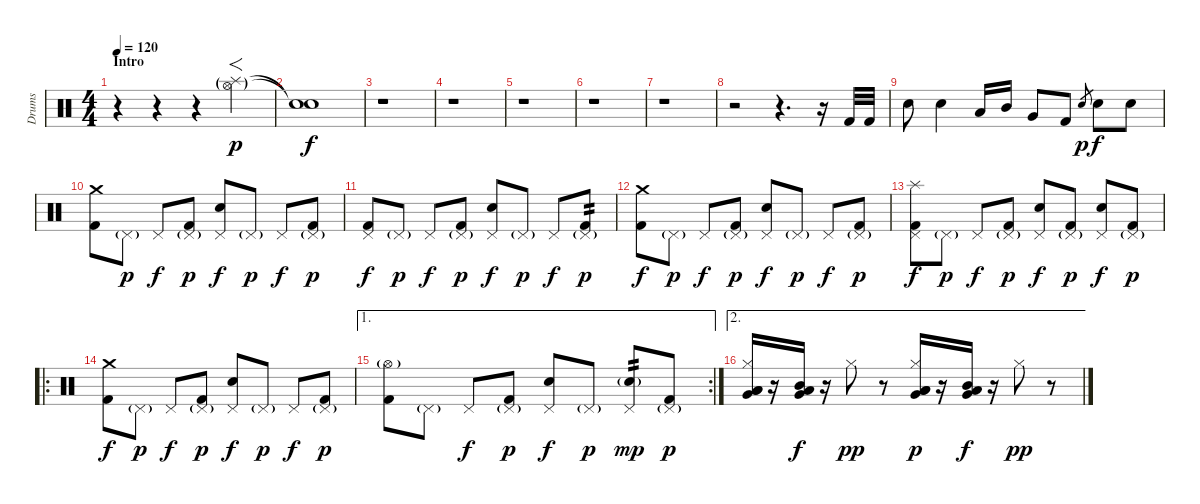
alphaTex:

\track ("Drums" "Drums") {instrument percussion}
\staff {score}
\articulation defaults
\ts (4 4)
\section ("" "Intro")
\tempo 120
\clef neutral
\ks c
r.4{dy p} r.4 r.4 ("Splash (hit)"{g} "Hi-Hat (open)"{g}).4{f} |
("Snare (hit)"{t} "Snare (hit)"{t}).1{dy f} |
r.1 |
r.1 |
r.1 |
r.1 |
r.1 |
r.2 r.4{d} r.16 "Kick (hit) 2".32 "Kick (hit) 2".32 |
"Electric Snare (hit)".8 "Electric Snare (hit)".4 "Low Tom (hit)".16 "Mid Tom (hit)".16 "Very Low Tom (hit)".8 "Kick (hit) 2".8 "Electric Snare (hit)".8{gr dy p} "Electric Snare (hit)".8{dy f} "Electric Snare (hit)".8 |
("Crash medium (hit)" "Kick (hit) 2").8 "Pedal Hi-Hat (hit)"{g}.8{dy p} "Pedal Hi-Hat (hit)".8{dy f} ("Pedal Hi-Hat (hit)"{g} "Kick (hit) 2").8{dy p} ("Pedal Hi-Hat (hit)" "Electric Snare (hit)").8{dy f} "Pedal Hi-Hat (hit)"{g}.8{dy p} "Pedal Hi-Hat (hit)".8{dy f} ("Pedal Hi-Hat (hit)"{g} "Kick (hit) 2").8{dy p} |
("Pedal Hi-Hat (hit)" "Kick (hit) 2").8{dy f} "Pedal Hi-Hat (hit)"{g}.8{dy p} "Pedal Hi-Hat (hit)".8{dy f} ("Pedal Hi-Hat (hit)"{g} "Kick (hit) 2").8{dy p} ("Pedal Hi-Hat (hit)" "Electric Snare (hit)").8{dy f} "Pedal Hi-Hat (hit)"{g}.8{dy p} "Pedal Hi-Hat (hit)".8{dy f} ("Pedal Hi-Hat (hit)"{g} "Kick (hit) 2").8{tp 2 dy p} |
("Crash medium (hit)" "Kick (hit) 2").8{dy f} "Pedal Hi-Hat (hit)"{g}.8{dy p} "Pedal Hi-Hat (hit)".8{dy f} ("Pedal Hi-Hat (hit)"{g} "Kick (hit) 2").8{dy p} ("Pedal Hi-Hat (hit)" "Electric Snare (hit)").8{dy f} "Pedal Hi-Hat (hit)"{g}.8{dy p} "Pedal Hi-Hat (hit)".8{dy f} ("Pedal Hi-Hat (hit)"{g} "Kick (hit) 2").8{dy p} |
("Splash (hit)" "Pedal Hi-Hat (hit)" "Kick (hit) 2").8{dy f} "Pedal Hi-Hat (hit)"{g}.8{dy p} "Pedal Hi-Hat (hit)".8{dy f} ("Pedal Hi-Hat (hit)"{g} "Kick (hit) 2").8{dy p} ("Pedal Hi-Hat (hit)" "Electric Snare (hit)").8{dy f} ("Pedal Hi-Hat (hit)"{g} "Kick (hit) 2").8{dy p} ("Pedal Hi-Hat (hit)" "Electric Snare (hit)").8{dy f} ("Pedal Hi-Hat (hit)"{g} "Kick (hit) 2").8{dy p} |
\ro
("Crash medium (hit)" "Kick (hit) 2").8{dy f} "Pedal Hi-Hat (hit)"{g}.8{dy p} "Pedal Hi-Hat (hit)".8{dy f} ("Pedal Hi-Hat (hit)"{g} "Kick (hit) 2").8{dy p} ("Pedal Hi-Hat (hit)" "Electric Snare (hit)").8{dy f} "Pedal Hi-Hat (hit)"{g}.8{dy p} "Pedal Hi-Hat (hit)".8{dy f} ("Pedal Hi-Hat (hit)"{g} "Kick (hit) 2").8{dy p} |
\ae 1
\rc 2
("Hi-Hat (open)"{g} "Kick (hit) 2").8 "Pedal Hi-Hat (hit)"{g}.8 "Pedal Hi-Hat (hit)".8{dy f} ("Pedal Hi-Hat (hit)"{g} "Kick (hit) 2").8{dy p} ("Pedal Hi-Hat (hit)" "Electric Snare (hit)").8{dy f} "Pedal Hi-Hat (hit)"{g}.8{dy p} ("Pedal Hi-Hat (hit)" "Electric Snare (hit)"{g}).8{tp 2 dy mp} ("Pedal Hi-Hat (hit)"{g} "Kick (hit) 2").8{dy p} |
\ae 2
("Hi-Hat (closed)" "Very Low Tom (hit)" "Low Floor Tom (hit)" "Low Tom (hit)").16 r.16 ("Very Low Tom (hit)" "Mid Tom (hit)" "Low Tom (hit)").16{dy f} r.16 "Hi-Hat (closed)".8{dy pp} r.8 ("Hi-Hat (closed)" "Very Low Tom (hit)" "Low Floor Tom (hit)" "Low Tom (hit)").16{dy p} r.16 ("Very Low Tom (hit)" "Mid Tom (hit)" "Low Tom (hit)").16{dy f} r.16 "Hi-Hat (closed)".8{dy pp} r.8
